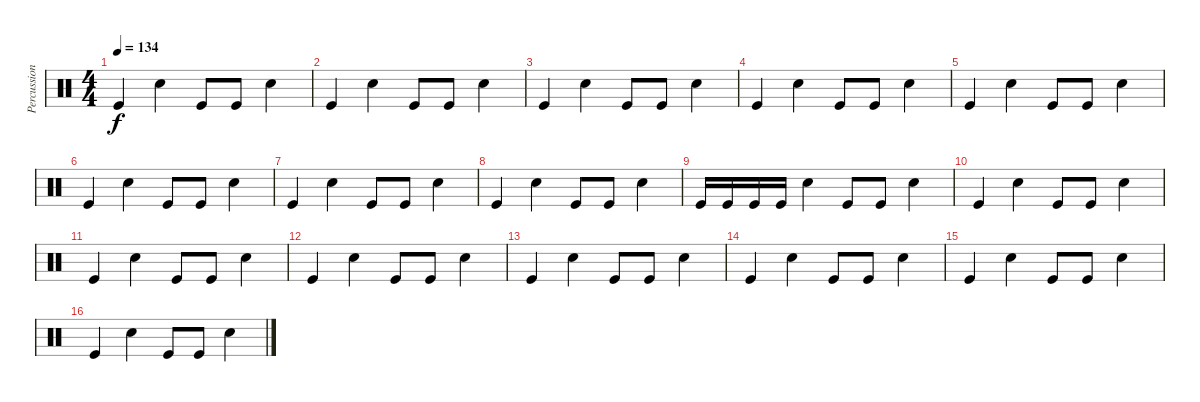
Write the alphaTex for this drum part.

\track ("Percussion" "Percussion") {instrument percussion}
\staff {score}
\articulation defaults
\ts (4 4)
\tempo 134
\clef neutral
\ks c "Kick (hit)".4{dy f} "Snare (hit) 2".4 "Kick (hit)".8 "Kick (hit)".8 "Snare (hit) 2".4
|
"Kick (hit)".4 "Snare (hit) 2".4 "Kick (hit)".8 "Kick (hit)".8 "Snare (hit) 2".4 |
"Kick (hit)".4 "Snare (hit) 2".4 "Kick (hit)".8 "Kick (hit)".8 "Snare (hit) 2".4 |
"Kick (hit)".4 "Snare (hit) 2".4 "Kick (hit)".8 "Kick (hit)".8 "Snare (hit) 2".4 |
"Kick (hit)".4 "Snare (hit) 2".4 "Kick (hit)".8 "Kick (hit)".8 "Snare (hit) 2".4 |
"Kick (hit)".4 "Snare (hit) 2".4 "Kick (hit)".8 "Kick (hit)".8 "Snare (hit) 2".4 |
"Kick (hit)".4 "Snare (hit) 2".4 "Kick (hit)".8 "Kick (hit)".8 "Snare (hit) 2".4 |
"Kick (hit)".4 "Snare (hit) 2".4 "Kick (hit)".8 "Kick (hit)".8 "Snare (hit) 2".4 |
"Kick (hit)".16 "Kick (hit)".16 "Kick (hit)".16 "Kick (hit)".16 "Snare (hit) 2".4 "Kick (hit)".8 "Kick (hit)".8 "Snare (hit) 2".4 |
"Kick (hit)".4 "Snare (hit) 2".4 "Kick (hit)".8 "Kick (hit)".8 "Snare (hit) 2".4 |
"Kick (hit)".4 "Snare (hit) 2".4 "Kick (hit)".8 "Kick (hit)".8 "Snare (hit) 2".4 |
"Kick (hit)".4 "Snare (hit) 2".4 "Kick (hit)".8 "Kick (hit)".8 "Snare (hit) 2".4 |
"Kick (hit)".4 "Snare (hit) 2".4 "Kick (hit)".8 "Kick (hit)".8 "Snare (hit) 2".4 |
"Kick (hit)".4 "Snare (hit) 2".4 "Kick (hit)".8 "Kick (hit)".8 "Snare (hit) 2".4 |
"Kick (hit)".4 "Snare (hit) 2".4 "Kick (hit)".8 "Kick (hit)".8 "Snare (hit) 2".4 |
"Kick (hit)".4 "Snare (hit) 2".4 "Kick (hit)".8 "Kick (hit)".8 "Snare (hit) 2".4
